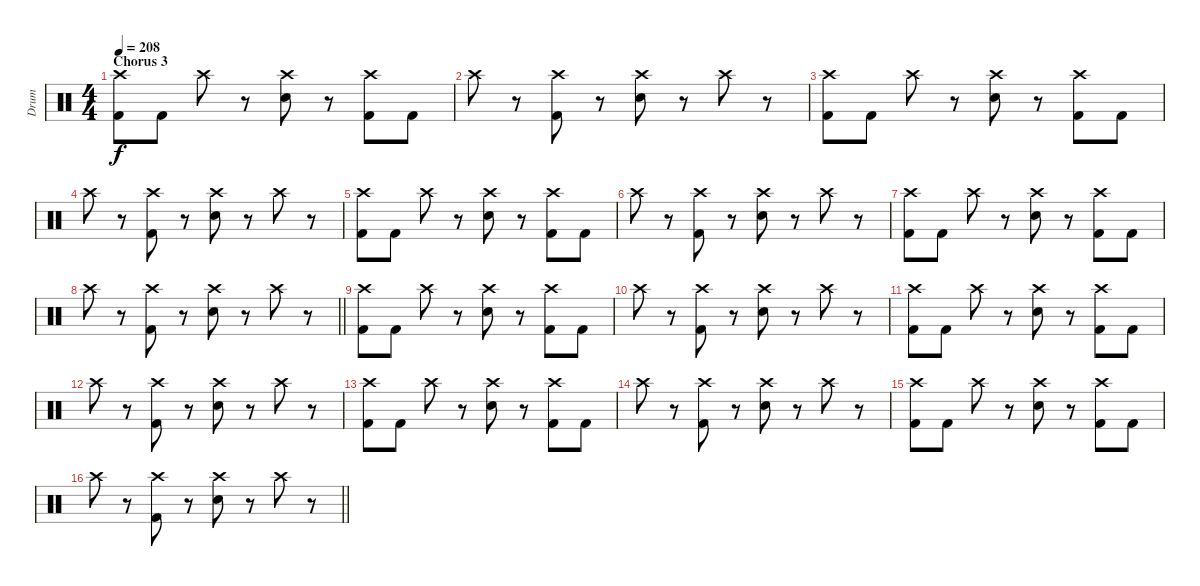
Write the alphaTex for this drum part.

\track ("Drum" "Drum") {instrument percussion}
\staff {score}
\articulation defaults
\ts (4 4)
\section ("" "Chorus 3")
\tempo 208
\clef neutral
\ks c
("Crash high (hit)" "Kick (hit) 2").8{dy f} "Kick (hit) 2".8 "Crash high (hit)".8 r.8 ("Crash high (hit)" "Electric Snare (hit)").8 r.8 ("Crash high (hit)" "Kick (hit) 2").8 "Kick (hit) 2".8 |
"Crash high (hit)".8 r.8 ("Crash high (hit)" "Kick (hit) 2").8 r.8 ("Crash high (hit)" "Electric Snare (hit)").8 r.8 "Crash high (hit)".8 r.8 |
("Crash high (hit)" "Kick (hit) 2").8 "Kick (hit) 2".8 "Crash high (hit)".8 r.8 ("Crash high (hit)" "Electric Snare (hit)").8 r.8 ("Crash high (hit)" "Kick (hit) 2").8 "Kick (hit) 2".8 |
"Crash high (hit)".8 r.8 ("Crash high (hit)" "Kick (hit) 2").8 r.8 ("Crash high (hit)" "Electric Snare (hit)").8 r.8 "Crash high (hit)".8 r.8 |
("Crash high (hit)" "Kick (hit) 2").8 "Kick (hit) 2".8 "Crash high (hit)".8 r.8 ("Crash high (hit)" "Electric Snare (hit)").8 r.8 ("Crash high (hit)" "Kick (hit) 2").8 "Kick (hit) 2".8 |
"Crash high (hit)".8 r.8 ("Crash high (hit)" "Kick (hit) 2").8 r.8 ("Crash high (hit)" "Electric Snare (hit)").8 r.8 "Crash high (hit)".8 r.8 |
("Crash high (hit)" "Kick (hit) 2").8 "Kick (hit) 2".8 "Crash high (hit)".8 r.8 ("Crash high (hit)" "Electric Snare (hit)").8 r.8 ("Crash high (hit)" "Kick (hit) 2").8 "Kick (hit) 2".8 |
\barLineRight lightlight "Crash high (hit)".8
r.8 ("Crash high (hit)" "Kick (hit) 2").8 r.8 ("Crash high (hit)" "Electric Snare (hit)").8 r.8 "Crash high (hit)".8 r.8 |
\section ("" "")
("Crash high (hit)" "Kick (hit) 2").8 "Kick (hit) 2".8 "Crash high (hit)".8 r.8 ("Crash high (hit)" "Electric Snare (hit)").8 r.8 ("Crash high (hit)" "Kick (hit) 2").8 "Kick (hit) 2".8 |
"Crash high (hit)".8 r.8 ("Crash high (hit)" "Kick (hit) 2").8 r.8 ("Crash high (hit)" "Electric Snare (hit)").8 r.8 "Crash high (hit)".8 r.8 |
("Crash high (hit)" "Kick (hit) 2").8 "Kick (hit) 2".8 "Crash high (hit)".8 r.8 ("Crash high (hit)" "Electric Snare (hit)").8 r.8 ("Crash high (hit)" "Kick (hit) 2").8 "Kick (hit) 2".8 |
"Crash high (hit)".8 r.8 ("Crash high (hit)" "Kick (hit) 2").8 r.8 ("Crash high (hit)" "Electric Snare (hit)").8 r.8 "Crash high (hit)".8 r.8 |
("Crash high (hit)" "Kick (hit) 2").8 "Kick (hit) 2".8 "Crash high (hit)".8 r.8 ("Crash high (hit)" "Electric Snare (hit)").8 r.8 ("Crash high (hit)" "Kick (hit) 2").8 "Kick (hit) 2".8 |
"Crash high (hit)".8 r.8 ("Crash high (hit)" "Kick (hit) 2").8 r.8 ("Crash high (hit)" "Electric Snare (hit)").8 r.8 "Crash high (hit)".8 r.8 |
("Crash high (hit)" "Kick (hit) 2").8 "Kick (hit) 2".8 "Crash high (hit)".8 r.8 ("Crash high (hit)" "Electric Snare (hit)").8 r.8 ("Crash high (hit)" "Kick (hit) 2").8 "Kick (hit) 2".8 |
\barLineRight lightlight "Crash high (hit)".8
r.8 ("Crash high (hit)" "Kick (hit) 2").8 r.8 ("Crash high (hit)" "Electric Snare (hit)").8 r.8 "Crash high (hit)".8 r.8
